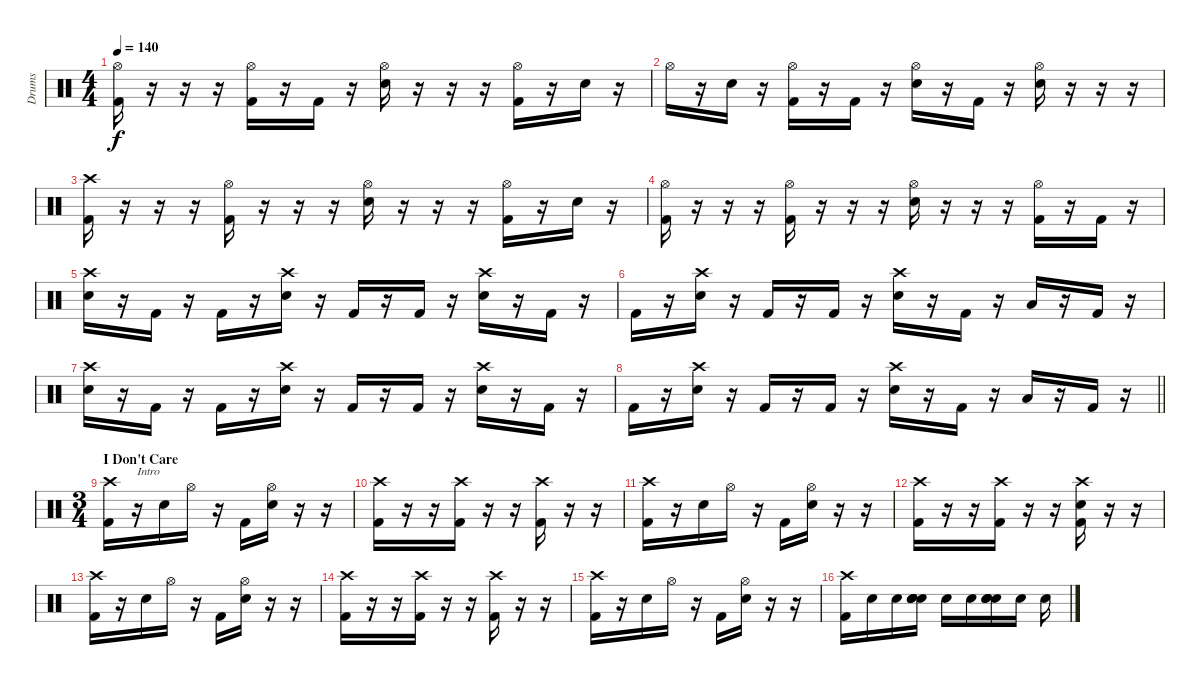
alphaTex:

\track ("Drums" "Drums") {instrument percussion}
\staff {score}
\articulation defaults
\ts (4 4)
\tempo 140
\clef neutral
\ks c
("Hi-Hat (open)" "Kick (hit) 2").16{dy f} r.16 r.16 r.16 ("Hi-Hat (open)" "Kick (hit) 2").16 r.16 "Kick (hit) 2".16 r.16 ("Hi-Hat (open)" "Snare (hit) 2").16 r.16 r.16 r.16 ("Hi-Hat (open)" "Kick (hit) 2").16 r.16 "Snare (hit) 2".16 r.16 |
"Hi-Hat (open)".16 r.16 "Snare (hit) 2".16 r.16 ("Hi-Hat (open)" "Kick (hit) 2").16 r.16 "Kick (hit) 2".16 r.16 ("Hi-Hat (open)" "Snare (hit) 2").16 r.16 "Kick (hit) 2".16 r.16 ("Hi-Hat (open)" "Snare (hit) 2").16 r.16 r.16 r.16 |
("Crash high (hit)" "Kick (hit) 2").16 r.16 r.16 r.16 ("Hi-Hat (open)" "Kick (hit) 2").16 r.16 r.16 r.16 ("Hi-Hat (open)" "Snare (hit) 2").16 r.16 r.16 r.16 ("Hi-Hat (open)" "Kick (hit) 2").16 r.16 "Snare (hit) 2".16 r.16 |
("Hi-Hat (open)" "Kick (hit) 2").16 r.16 r.16 r.16 ("Hi-Hat (open)" "Kick (hit) 2").16 r.16 r.16 r.16 ("Hi-Hat (open)" "Snare (hit) 2").16 r.16 r.16 r.16 ("Hi-Hat (open)" "Kick (hit) 2").16 r.16 "Kick (hit) 2".16 r.16 |
("Crash high (hit)" "Snare (hit) 2").16 r.16 "Kick (hit) 2".16 r.16 "Kick (hit) 2".16 r.16 ("Crash high (hit)" "Snare (hit) 2").16 r.16 "Kick (hit) 2".16 r.16 "Kick (hit) 2".16 r.16 ("Crash high (hit)" "Snare (hit) 2").16 r.16 "Kick (hit) 2".16 r.16 |
"Kick (hit) 2".16 r.16 ("Crash high (hit)" "Snare (hit) 2").16 r.16 "Kick (hit) 2".16 r.16 "Kick (hit) 2".16 r.16 ("Crash high (hit)" "Snare (hit) 2").16 r.16 "Kick (hit) 2".16 r.16 "Low Floor Tom (hit)".16 r.16 "Kick (hit) 2".16 r.16 |
("Crash high (hit)" "Snare (hit) 2").16 r.16 "Kick (hit) 2".16 r.16 "Kick (hit) 2".16 r.16 ("Crash high (hit)" "Snare (hit) 2").16 r.16 "Kick (hit) 2".16 r.16 "Kick (hit) 2".16 r.16 ("Crash high (hit)" "Snare (hit) 2").16 r.16 "Kick (hit) 2".16 r.16 |
\barLineRight lightlight "Kick (hit) 2".16
r.16 ("Crash high (hit)" "Snare (hit) 2").16 r.16 "Kick (hit) 2".16 r.16 "Kick (hit) 2".16 r.16 ("Crash high (hit)" "Snare (hit) 2").16 r.16 "Kick (hit) 2".16 r.16 "Low Floor Tom (hit)".16 r.16 "Kick (hit) 2".16 r.16 |
\ts (3 4)
\section ("" "I Don't Care")
("Crash high (hit)" "Kick (hit) 2").16 r.16{txt "Intro"} "Snare (hit) 2".16 "Hi-Hat (open)".16 r.16 "Kick (hit) 2".16 ("Hi-Hat (open)" "Snare (hit) 2").16 r.16 r.16 |
("Crash high (hit)" "Kick (hit) 2").16 r.16 r.16 ("Crash high (hit)" "Kick (hit) 2").16 r.16 r.16 ("Crash high (hit)" "Kick (hit) 2").16 r.16 r.16 |
("Crash high (hit)" "Kick (hit) 2").16 r.16 "Snare (hit) 2".16 "Hi-Hat (open)".16 r.16 "Kick (hit) 2".16 ("Hi-Hat (open)" "Snare (hit) 2").16 r.16 r.16 |
("Crash high (hit)" "Kick (hit) 2").16 r.16 r.16 ("Crash high (hit)" "Kick (hit) 2").16 r.16 r.16 ("Crash high (hit)" "Snare (hit) 2" "Kick (hit) 2").16 r.16 r.16 |
("Crash high (hit)" "Kick (hit) 2").16 r.16 "Snare (hit) 2".16 "Hi-Hat (open)".16 r.16 "Kick (hit) 2".16 ("Hi-Hat (open)" "Snare (hit) 2").16 r.16 r.16 |
("Crash high (hit)" "Kick (hit) 2").16 r.16 r.16 ("Crash high (hit)" "Kick (hit) 2").16 r.16 r.16 ("Crash high (hit)" "Kick (hit) 2").16 r.16 r.16 |
("Crash high (hit)" "Kick (hit) 2").16 r.16 "Snare (hit) 2".16 "Hi-Hat (open)".16 r.16 "Kick (hit) 2".16 ("Hi-Hat (open)" "Snare (hit) 2").16 r.16 r.16 |
("Crash high (hit)" "Kick (hit) 2").16 "Snare (hit) 2".16 "Snare (hit) 2".16 ("Snare (hit) 2" "Snare (hit) 2" "Snare (hit) 2" "Snare (hit) 2").16 "Snare (hit) 2".16 "Snare (hit) 2".16 ("Snare (hit) 2" "Snare (hit) 2" "Snare (hit) 2" "Snare (hit) 2").16 "Snare (hit) 2".16 "Snare (hit) 2".16
